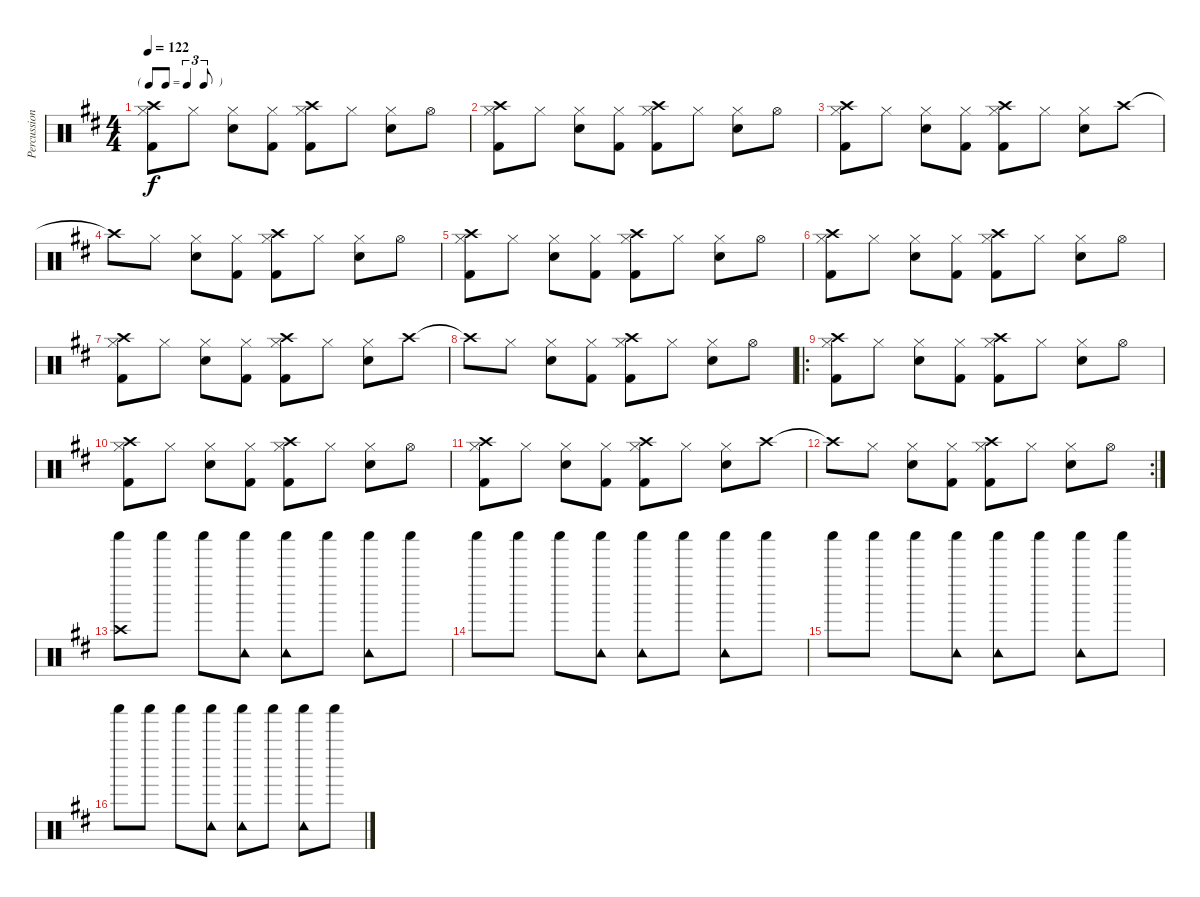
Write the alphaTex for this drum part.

\track ("Percussioni" "Percussion") {instrument percussion}
\staff {score}
\articulation defaults
\ts (4 4)
\tf triplet8th
\tempo 122
\clef neutral
\ks d
("Hi-Hat (closed)" "Kick (hit) 2" "Crash high (hit)").8{dy f} "Hi-Hat (closed)".8 ("Hi-Hat (closed)" "Electric Snare (hit)").8 ("Hi-Hat (closed)" "Kick (hit) 2").8 ("Hi-Hat (closed)" "Kick (hit) 2" "Crash high (hit)").8 "Hi-Hat (closed)".8 ("Hi-Hat (closed)" "Electric Snare (hit)").8 "Hi-Hat (open)".8 |
("Hi-Hat (closed)" "Kick (hit) 2" "Crash high (hit)").8 "Hi-Hat (closed)".8 ("Hi-Hat (closed)" "Electric Snare (hit)").8 ("Hi-Hat (closed)" "Kick (hit) 2").8 ("Hi-Hat (closed)" "Kick (hit) 2" "Crash high (hit)").8 "Hi-Hat (closed)".8 ("Hi-Hat (closed)" "Electric Snare (hit)").8 "Hi-Hat (open)".8 |
("Hi-Hat (closed)" "Kick (hit) 2" "Crash high (hit)").8 "Hi-Hat (closed)".8 ("Hi-Hat (closed)" "Electric Snare (hit)").8 ("Hi-Hat (closed)" "Kick (hit) 2").8 ("Hi-Hat (closed)" "Kick (hit) 2" "Crash high (hit)").8 "Hi-Hat (closed)".8 ("Hi-Hat (closed)" "Electric Snare (hit)").8 "Crash high (hit)".8 |
"Crash high (hit)"{t}.8 "Hi-Hat (closed)".8 ("Hi-Hat (closed)" "Electric Snare (hit)").8 ("Hi-Hat (closed)" "Kick (hit) 2").8 ("Hi-Hat (closed)" "Kick (hit) 2" "Crash high (hit)").8 "Hi-Hat (closed)".8 ("Hi-Hat (closed)" "Electric Snare (hit)").8 "Hi-Hat (open)".8 |
("Hi-Hat (closed)" "Kick (hit) 2" "Crash high (hit)").8 "Hi-Hat (closed)".8 ("Hi-Hat (closed)" "Electric Snare (hit)").8 ("Hi-Hat (closed)" "Kick (hit) 2").8 ("Hi-Hat (closed)" "Kick (hit) 2" "Crash high (hit)").8 "Hi-Hat (closed)".8 ("Hi-Hat (closed)" "Electric Snare (hit)").8 "Hi-Hat (open)".8 |
("Hi-Hat (closed)" "Kick (hit) 2" "Crash high (hit)").8 "Hi-Hat (closed)".8 ("Hi-Hat (closed)" "Electric Snare (hit)").8 ("Hi-Hat (closed)" "Kick (hit) 2").8 ("Hi-Hat (closed)" "Kick (hit) 2" "Crash high (hit)").8 "Hi-Hat (closed)".8 ("Hi-Hat (closed)" "Electric Snare (hit)").8 "Hi-Hat (open)".8 |
("Hi-Hat (closed)" "Kick (hit) 2" "Crash high (hit)").8 "Hi-Hat (closed)".8 ("Hi-Hat (closed)" "Electric Snare (hit)").8 ("Hi-Hat (closed)" "Kick (hit) 2").8 ("Hi-Hat (closed)" "Kick (hit) 2" "Crash high (hit)").8 "Hi-Hat (closed)".8 ("Hi-Hat (closed)" "Electric Snare (hit)").8 "Crash high (hit)".8 |
"Crash high (hit)"{t}.8 "Hi-Hat (closed)".8 ("Hi-Hat (closed)" "Electric Snare (hit)").8 ("Hi-Hat (closed)" "Kick (hit) 2").8 ("Hi-Hat (closed)" "Kick (hit) 2" "Crash high (hit)").8 "Hi-Hat (closed)".8 ("Hi-Hat (closed)" "Electric Snare (hit)").8 "Hi-Hat (open)".8 |
\ro
("Hi-Hat (closed)" "Kick (hit) 2" "Crash high (hit)").8 "Hi-Hat (closed)".8 ("Hi-Hat (closed)" "Electric Snare (hit)").8 ("Hi-Hat (closed)" "Kick (hit) 2").8 ("Hi-Hat (closed)" "Kick (hit) 2" "Crash high (hit)").8 "Hi-Hat (closed)".8 ("Hi-Hat (closed)" "Electric Snare (hit)").8 "Hi-Hat (open)".8 |
("Hi-Hat (closed)" "Kick (hit) 2" "Crash high (hit)").8 "Hi-Hat (closed)".8 ("Hi-Hat (closed)" "Electric Snare (hit)").8 ("Hi-Hat (closed)" "Kick (hit) 2").8 ("Hi-Hat (closed)" "Kick (hit) 2" "Crash high (hit)").8 "Hi-Hat (closed)".8 ("Hi-Hat (closed)" "Electric Snare (hit)").8 "Hi-Hat (open)".8 |
("Hi-Hat (closed)" "Kick (hit) 2" "Crash high (hit)").8 "Hi-Hat (closed)".8 ("Hi-Hat (closed)" "Electric Snare (hit)").8 ("Hi-Hat (closed)" "Kick (hit) 2").8 ("Hi-Hat (closed)" "Kick (hit) 2" "Crash high (hit)").8 "Hi-Hat (closed)".8 ("Hi-Hat (closed)" "Electric Snare (hit)").8 "Crash high (hit)".8 |
\rc 2 "Crash high (hit)"{t}.8 "Hi-Hat (closed)".8
("Hi-Hat (closed)" "Electric Snare (hit)").8 ("Hi-Hat (closed)" "Kick (hit) 2").8 ("Hi-Hat (closed)" "Kick (hit) 2" "Crash high (hit)").8 "Hi-Hat (closed)".8 ("Hi-Hat (closed)" "Electric Snare (hit)").8 "Hi-Hat (open)".8 |
("Shaker (hit)" "Crash high (hit)").8 "Shaker (hit)".8 "Shaker (hit)".8 ("Shaker (hit)" "Tambourine (hit)").8 ("Shaker (hit)" "Tambourine (hit)").8 "Shaker (hit)".8 ("Shaker (hit)" "Tambourine (hit)").8 "Shaker (hit)".8 |
"Shaker (hit)".8 "Shaker (hit)".8 "Shaker (hit)".8 ("Shaker (hit)" "Tambourine (hit)").8 ("Shaker (hit)" "Tambourine (hit)").8 "Shaker (hit)".8 ("Shaker (hit)" "Tambourine (hit)").8 "Shaker (hit)".8 |
"Shaker (hit)".8 "Shaker (hit)".8 "Shaker (hit)".8 ("Shaker (hit)" "Tambourine (hit)").8 ("Shaker (hit)" "Tambourine (hit)").8 "Shaker (hit)".8 ("Shaker (hit)" "Tambourine (hit)").8 "Shaker (hit)".8 |
"Shaker (hit)".8 "Shaker (hit)".8 "Shaker (hit)".8 ("Shaker (hit)" "Tambourine (hit)").8 ("Shaker (hit)" "Tambourine (hit)").8 "Shaker (hit)".8 ("Shaker (hit)" "Tambourine (hit)").8 "Shaker (hit)".8
